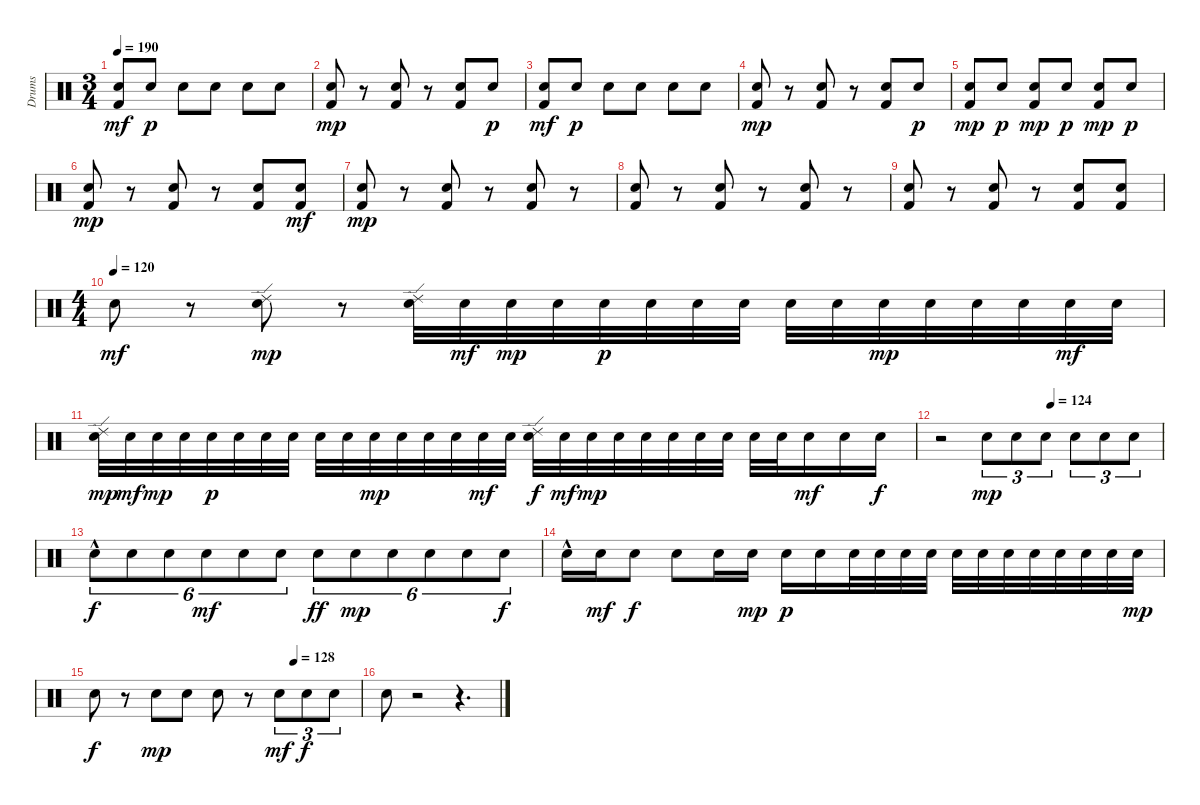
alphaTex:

\track ("Drums" "Drums") {instrument percussion}
\staff {score}
\articulation defaults
\ts (3 4)
\tempo 190
\clef neutral
\ks c
("Kick (hit) 2" "Electric Snare (hit)").8{dy mf} "Electric Snare (hit)".8{dy p} "Electric Snare (hit)".8 "Electric Snare (hit)".8 "Electric Snare (hit)".8 "Electric Snare (hit)".8 |
("Kick (hit) 2" "Electric Snare (hit)").8{dy mp} r.8 ("Kick (hit) 2" "Electric Snare (hit)").8 r.8 ("Kick (hit) 2" "Electric Snare (hit)").8 "Electric Snare (hit)".8{dy p} |
("Kick (hit) 2" "Electric Snare (hit)").8{dy mf} "Electric Snare (hit)".8{dy p} "Electric Snare (hit)".8 "Electric Snare (hit)".8 "Electric Snare (hit)".8 "Electric Snare (hit)".8 |
("Kick (hit) 2" "Electric Snare (hit)").8{dy mp} r.8 ("Kick (hit) 2" "Electric Snare (hit)").8 r.8 ("Kick (hit) 2" "Electric Snare (hit)").8 "Electric Snare (hit)".8{dy p} |
("Kick (hit) 2" "Electric Snare (hit)").8{dy mp} "Electric Snare (hit)".8{dy p} ("Kick (hit) 2" "Electric Snare (hit)").8{dy mp} "Electric Snare (hit)".8{dy p} ("Kick (hit) 2" "Electric Snare (hit)").8{dy mp} "Electric Snare (hit)".8{dy p} |
("Kick (hit) 2" "Electric Snare (hit)").8{dy mp} r.8 ("Kick (hit) 2" "Electric Snare (hit)").8 r.8 ("Kick (hit) 2" "Electric Snare (hit)").8 ("Kick (hit) 2" "Electric Snare (hit)").8{dy mf} |
("Kick (hit) 2" "Electric Snare (hit)").8{dy mp} r.8 ("Kick (hit) 2" "Electric Snare (hit)").8 r.8 ("Kick (hit) 2" "Electric Snare (hit)").8 r.8 |
("Kick (hit) 2" "Electric Snare (hit)").8 r.8 ("Kick (hit) 2" "Electric Snare (hit)").8 r.8 ("Kick (hit) 2" "Electric Snare (hit)").8 r.8 |
("Kick (hit) 2" "Electric Snare (hit)").8 r.8 ("Kick (hit) 2" "Electric Snare (hit)").8 r.8 ("Kick (hit) 2" "Electric Snare (hit)").8 ("Kick (hit) 2" "Electric Snare (hit)").8 |
\ts (4 4)
\tempo (120)
"Electric Snare (hit)".8{dy mf} r.8 ("Electric Snare (hit)" "Ride (edge) 2").8{dy mp} r.8 ("Ride (edge) 2" "Electric Snare (hit)").32 "Electric Snare (hit)".32{dy mf} "Electric Snare (hit)".32{dy mp} "Electric Snare (hit)".32 "Electric Snare (hit)".32{dy p} "Electric Snare (hit)".32 "Electric Snare (hit)".32 "Electric Snare (hit)".32 "Electric Snare (hit)".32 "Electric Snare (hit)".32 "Electric Snare (hit)".32{dy mp} "Electric Snare (hit)".32 "Electric Snare (hit)".32 "Electric Snare (hit)".32 "Electric Snare (hit)".32{dy mf} "Electric Snare (hit)".32 |
("Electric Snare (hit)" "Ride (edge) 2").32{dy mp} "Electric Snare (hit)".32{dy mf} "Electric Snare (hit)".32{dy mp} "Electric Snare (hit)".32 "Electric Snare (hit)".32{dy p} "Electric Snare (hit)".32 "Electric Snare (hit)".32 "Electric Snare (hit)".32 "Electric Snare (hit)".32 "Electric Snare (hit)".32 "Electric Snare (hit)".32{dy mp} "Electric Snare (hit)".32 "Electric Snare (hit)".32 "Electric Snare (hit)".32 "Electric Snare (hit)".32{dy mf} "Electric Snare (hit)".32 ("Electric Snare (hit)" "Ride (edge) 2").32{dy f} "Electric Snare (hit)".32{dy mf} "Electric Snare (hit)".32{dy mp} "Electric Snare (hit)".32 "Electric Snare (hit)".32 "Electric Snare (hit)".32 "Electric Snare (hit)".32 "Electric Snare (hit)".32 "Electric Snare (hit)".32 "Electric Snare (hit)".32 "Electric Snare (hit)".16{dy mf} "Electric Snare (hit)".16 "Electric Snare (hit)".16{dy f} |
\tempo (124 0.5)
r.2 "Electric Snare (hit)".8{tu (3 2) dy mp} "Electric Snare (hit)".8{tu (3 2)} "Electric Snare (hit)".8{tu (3 2)} "Electric Snare (hit)".8{tu (3 2)} "Electric Snare (hit)".8{tu (3 2)} "Electric Snare (hit)".8{tu (3 2)} |
"Electric Snare (hit)"{hac}.8{tu (6 4) dy f} "Electric Snare (hit)".8{tu (6 4)} "Electric Snare (hit)".8{tu (6 4)} "Electric Snare (hit)".8{tu (6 4) dy mf} "Electric Snare (hit)".8{tu (6 4)} "Electric Snare (hit)".8{tu (6 4)} "Electric Snare (hit)".8{tu (6 4) dy ff} "Electric Snare (hit)".8{tu (6 4) dy mp} "Electric Snare (hit)".8{tu (6 4)} "Electric Snare (hit)".8{tu (6 4)} "Electric Snare (hit)".8{tu (6 4)} "Electric Snare (hit)".8{tu (6 4) dy f} |
"Electric Snare (hit)"{hac}.16 "Electric Snare (hit)".16{dy mf} "Electric Snare (hit)".8{dy f} "Electric Snare (hit)".8 "Electric Snare (hit)".16 "Electric Snare (hit)".16{dy mp} "Electric Snare (hit)".16{dy p} "Electric Snare (hit)".16 "Electric Snare (hit)".32 "Electric Snare (hit)".32 "Electric Snare (hit)".32 "Electric Snare (hit)".32 "Electric Snare (hit)".32 "Electric Snare (hit)".32 "Electric Snare (hit)".32 "Electric Snare (hit)".32 "Electric Snare (hit)".32 "Electric Snare (hit)".32 "Electric Snare (hit)".32 "Electric Snare (hit)".32{dy mp} |
\tempo (128 0.75)
"Electric Snare (hit)".8{dy f} r.8 "Electric Snare (hit)".8{dy mp} "Electric Snare (hit)".8 "Electric Snare (hit)".8 r.8 "Electric Snare (hit)".8{tu (3 2) dy mf} "Electric Snare (hit)".8{tu (3 2) dy f} "Electric Snare (hit)".8{tu (3 2)} |
"Electric Snare (hit)".8 r.2 r.4{d}
